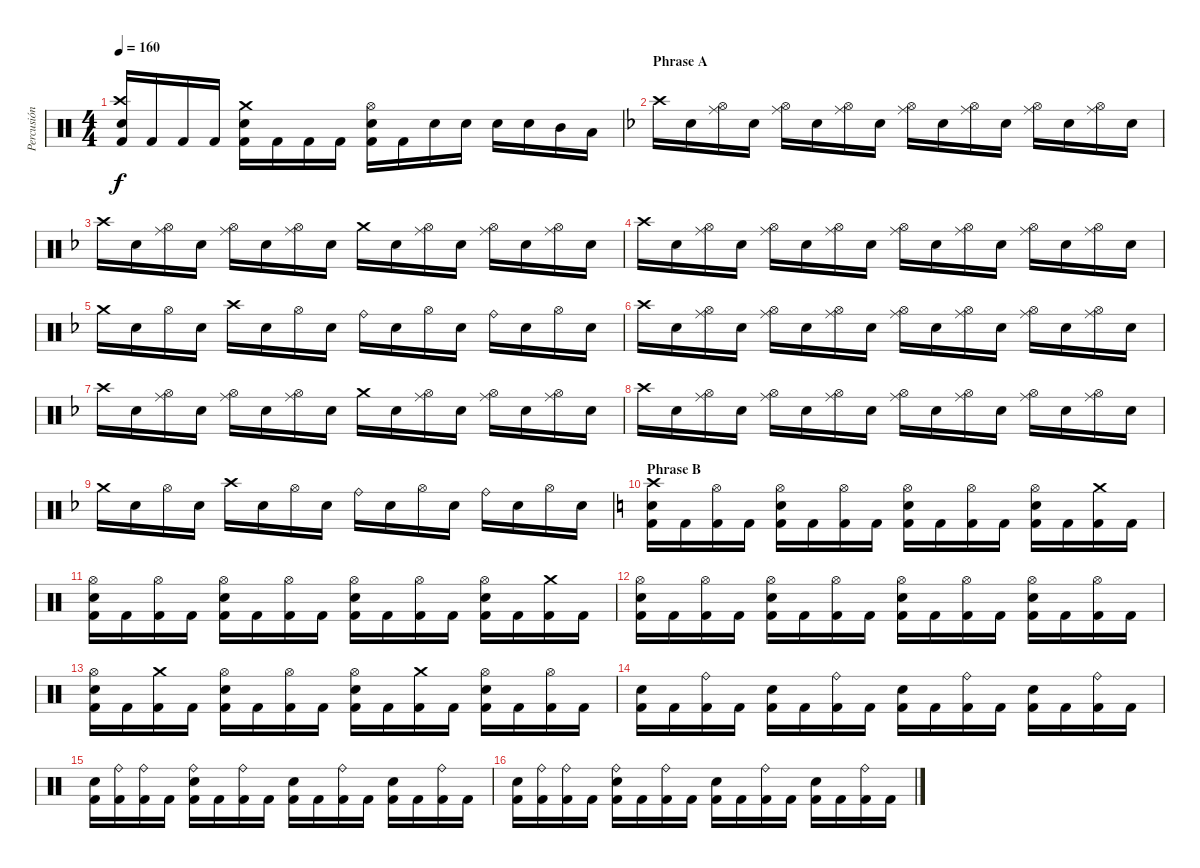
\track ("Percusión" "Percusión") {instrument percussion}
\staff {score}
\articulation defaults
\ts (4 4)
\tempo 160
\clef neutral
\ks c
("Electric Snare (hit)" "Crash high (hit)" "Kick (hit) 2").16{dy f} "Kick (hit) 2".16 "Kick (hit) 2".16 "Kick (hit) 2".16 ("Electric Snare (hit)" "Crash medium (hit)" "Kick (hit) 2").16 "Kick (hit) 2".16 "Kick (hit) 2".16 "Kick (hit) 2".16 ("Electric Snare (hit)" "Hi-Hat (open)" "Kick (hit) 2").16 "Kick (hit) 2".16 "Electric Snare (hit)".16 "Electric Snare (hit)".16 "Electric Snare (hit)".16 "Electric Snare (hit)".16 "Mid Tom (hit)".16 "Low Tom (hit)".16 |
\section ("" "Phrase A")
\ks f "Crash high (hit)".16 "Electric Snare (hit)".16
("Ride (middle)" "Hi-Hat (open)").16 "Electric Snare (hit)".16 ("Ride (middle)" "Hi-Hat (open)").16 "Electric Snare (hit)".16 ("Ride (middle)" "Hi-Hat (open)").16 "Electric Snare (hit)".16 ("Ride (middle)" "Hi-Hat (open)").16 "Electric Snare (hit)".16 ("Ride (middle)" "Hi-Hat (open)").16 "Electric Snare (hit)".16 ("Ride (middle)" "Hi-Hat (open)").16 "Electric Snare (hit)".16 ("Ride (middle)" "Hi-Hat (open)").16 "Electric Snare (hit)".16 |
"Crash high (hit)".16 "Electric Snare (hit)".16 ("Ride (middle)" "Hi-Hat (open)").16 "Electric Snare (hit)".16 ("Ride (middle)" "Hi-Hat (open)").16 "Electric Snare (hit)".16 ("Ride (middle)" "Hi-Hat (open)").16 "Electric Snare (hit)".16 "Crash medium (hit)".16 "Electric Snare (hit)".16 ("Ride (middle)" "Hi-Hat (open)").16 "Electric Snare (hit)".16 ("Ride (middle)" "Hi-Hat (open)").16 "Electric Snare (hit)".16 ("Ride (middle)" "Hi-Hat (open)").16 "Electric Snare (hit)".16 |
"Crash high (hit)".16 "Electric Snare (hit)".16 ("Ride (middle)" "Hi-Hat (open)").16 "Electric Snare (hit)".16 ("Ride (middle)" "Hi-Hat (open)").16 "Electric Snare (hit)".16 ("Ride (middle)" "Hi-Hat (open)").16 "Electric Snare (hit)".16 ("Ride (middle)" "Hi-Hat (open)").16 "Electric Snare (hit)".16 ("Ride (middle)" "Hi-Hat (open)").16 "Electric Snare (hit)".16 ("Ride (middle)" "Hi-Hat (open)").16 "Electric Snare (hit)".16 ("Ride (middle)" "Hi-Hat (open)").16 "Electric Snare (hit)".16 |
"Crash medium (hit)".16 "Electric Snare (hit)".16 "Hi-Hat (open)".16 "Electric Snare (hit)".16 "Crash high (hit)".16 "Electric Snare (hit)".16 "Hi-Hat (open)".16 "Electric Snare (hit)".16 "Ride (bell)".16 "Electric Snare (hit)".16 "Hi-Hat (open)".16 "Electric Snare (hit)".16 "Ride (bell)".16 "Electric Snare (hit)".16 "Hi-Hat (open)".16 "Electric Snare (hit)".16 |
"Crash high (hit)".16 "Electric Snare (hit)".16 ("Ride (middle)" "Hi-Hat (open)").16 "Electric Snare (hit)".16 ("Ride (middle)" "Hi-Hat (open)").16 "Electric Snare (hit)".16 ("Ride (middle)" "Hi-Hat (open)").16 "Electric Snare (hit)".16 ("Ride (middle)" "Hi-Hat (open)").16 "Electric Snare (hit)".16 ("Ride (middle)" "Hi-Hat (open)").16 "Electric Snare (hit)".16 ("Ride (middle)" "Hi-Hat (open)").16 "Electric Snare (hit)".16 ("Ride (middle)" "Hi-Hat (open)").16 "Electric Snare (hit)".16 |
"Crash high (hit)".16 "Electric Snare (hit)".16 ("Ride (middle)" "Hi-Hat (open)").16 "Electric Snare (hit)".16 ("Ride (middle)" "Hi-Hat (open)").16 "Electric Snare (hit)".16 ("Ride (middle)" "Hi-Hat (open)").16 "Electric Snare (hit)".16 "Crash medium (hit)".16 "Electric Snare (hit)".16 ("Ride (middle)" "Hi-Hat (open)").16 "Electric Snare (hit)".16 ("Ride (middle)" "Hi-Hat (open)").16 "Electric Snare (hit)".16 ("Ride (middle)" "Hi-Hat (open)").16 "Electric Snare (hit)".16 |
"Crash high (hit)".16 "Electric Snare (hit)".16 ("Ride (middle)" "Hi-Hat (open)").16 "Electric Snare (hit)".16 ("Ride (middle)" "Hi-Hat (open)").16 "Electric Snare (hit)".16 ("Ride (middle)" "Hi-Hat (open)").16 "Electric Snare (hit)".16 ("Ride (middle)" "Hi-Hat (open)").16 "Electric Snare (hit)".16 ("Ride (middle)" "Hi-Hat (open)").16 "Electric Snare (hit)".16 ("Ride (middle)" "Hi-Hat (open)").16 "Electric Snare (hit)".16 ("Ride (middle)" "Hi-Hat (open)").16 "Electric Snare (hit)".16 |
"Crash medium (hit)".16 "Electric Snare (hit)".16 "Hi-Hat (open)".16 "Electric Snare (hit)".16 "Crash high (hit)".16 "Electric Snare (hit)".16 "Hi-Hat (open)".16 "Electric Snare (hit)".16 "Ride (bell)".16 "Electric Snare (hit)".16 "Hi-Hat (open)".16 "Electric Snare (hit)".16 "Ride (bell)".16 "Electric Snare (hit)".16 "Hi-Hat (open)".16 "Electric Snare (hit)".16 |
\section ("" "Phrase B")
\ks c
("Electric Snare (hit)" "Crash high (hit)" "Kick (hit) 2").16 "Kick (hit) 2".16 ("Hi-Hat (open)" "Kick (hit) 2").16 "Kick (hit) 2".16 ("Electric Snare (hit)" "Hi-Hat (open)" "Kick (hit) 2").16 "Kick (hit) 2".16 ("Hi-Hat (open)" "Kick (hit) 2").16 "Kick (hit) 2".16 ("Electric Snare (hit)" "Hi-Hat (open)" "Kick (hit) 2").16 "Kick (hit) 2".16 ("Hi-Hat (open)" "Kick (hit) 2").16 "Kick (hit) 2".16 ("Electric Snare (hit)" "Hi-Hat (open)" "Kick (hit) 2").16 "Kick (hit) 2".16 ("Crash medium (hit)" "Kick (hit) 2").16 "Kick (hit) 2".16 |
("Electric Snare (hit)" "Hi-Hat (open)" "Kick (hit) 2").16 "Kick (hit) 2".16 ("Hi-Hat (open)" "Kick (hit) 2").16 "Kick (hit) 2".16 ("Electric Snare (hit)" "Hi-Hat (open)" "Kick (hit) 2").16 "Kick (hit) 2".16 ("Hi-Hat (open)" "Kick (hit) 2").16 "Kick (hit) 2".16 ("Electric Snare (hit)" "Hi-Hat (open)" "Kick (hit) 2").16 "Kick (hit) 2".16 ("Hi-Hat (open)" "Kick (hit) 2").16 "Kick (hit) 2".16 ("Electric Snare (hit)" "Hi-Hat (open)" "Kick (hit) 2").16 "Kick (hit) 2".16 ("Crash medium (hit)" "Kick (hit) 2").16 "Kick (hit) 2".16 |
("Electric Snare (hit)" "Hi-Hat (open)" "Kick (hit) 2").16 "Kick (hit) 2".16 ("Hi-Hat (open)" "Kick (hit) 2").16 "Kick (hit) 2".16 ("Electric Snare (hit)" "Hi-Hat (open)" "Kick (hit) 2").16 "Kick (hit) 2".16 ("Hi-Hat (open)" "Kick (hit) 2").16 "Kick (hit) 2".16 ("Electric Snare (hit)" "Hi-Hat (open)" "Kick (hit) 2").16 "Kick (hit) 2".16 ("Hi-Hat (open)" "Kick (hit) 2").16 "Kick (hit) 2".16 ("Electric Snare (hit)" "Hi-Hat (open)" "Kick (hit) 2").16 "Kick (hit) 2".16 ("Hi-Hat (open)" "Kick (hit) 2").16 "Kick (hit) 2".16 |
("Electric Snare (hit)" "Hi-Hat (open)" "Kick (hit) 2").16 "Kick (hit) 2".16 ("Crash medium (hit)" "Kick (hit) 2").16 "Kick (hit) 2".16 ("Electric Snare (hit)" "Hi-Hat (open)" "Kick (hit) 2").16 "Kick (hit) 2".16 ("Hi-Hat (open)" "Kick (hit) 2").16 "Kick (hit) 2".16 ("Electric Snare (hit)" "Hi-Hat (open)" "Kick (hit) 2").16 "Kick (hit) 2".16 ("Crash medium (hit)" "Kick (hit) 2").16 "Kick (hit) 2".16 ("Electric Snare (hit)" "Hi-Hat (open)" "Kick (hit) 2").16 "Kick (hit) 2".16 ("Hi-Hat (open)" "Kick (hit) 2").16 "Kick (hit) 2".16 |
("Electric Snare (hit)" "Kick (hit) 2").16 "Kick (hit) 2".16 ("Ride (bell)" "Kick (hit) 2").16 "Kick (hit) 2".16 ("Electric Snare (hit)" "Kick (hit) 2").16 "Kick (hit) 2".16 ("Ride (bell)" "Kick (hit) 2").16 "Kick (hit) 2".16 ("Electric Snare (hit)" "Kick (hit) 2").16 "Kick (hit) 2".16 ("Ride (bell)" "Kick (hit) 2").16 "Kick (hit) 2".16 ("Electric Snare (hit)" "Kick (hit) 2").16 "Kick (hit) 2".16 ("Ride (bell)" "Kick (hit) 2").16 "Kick (hit) 2".16 |
("Electric Snare (hit)" "Kick (hit) 2").16 ("Ride (bell)" "Kick (hit) 2").16 ("Ride (bell)" "Kick (hit) 2").16 "Kick (hit) 2".16 ("Electric Snare (hit)" "Ride (bell)" "Kick (hit) 2").16 "Kick (hit) 2".16 ("Ride (bell)" "Kick (hit) 2").16 "Kick (hit) 2".16 ("Electric Snare (hit)" "Kick (hit) 2").16 "Kick (hit) 2".16 ("Ride (bell)" "Kick (hit) 2").16 "Kick (hit) 2".16 ("Electric Snare (hit)" "Kick (hit) 2").16 "Kick (hit) 2".16 ("Ride (bell)" "Kick (hit) 2").16 "Kick (hit) 2".16 |
("Electric Snare (hit)" "Kick (hit) 2").16 ("Ride (bell)" "Kick (hit) 2").16 ("Ride (bell)" "Kick (hit) 2").16 "Kick (hit) 2".16 ("Electric Snare (hit)" "Ride (bell)" "Kick (hit) 2").16 "Kick (hit) 2".16 ("Ride (bell)" "Kick (hit) 2").16 "Kick (hit) 2".16 ("Electric Snare (hit)" "Kick (hit) 2").16 "Kick (hit) 2".16 ("Ride (bell)" "Kick (hit) 2").16 "Kick (hit) 2".16 ("Electric Snare (hit)" "Kick (hit) 2").16 "Kick (hit) 2".16 ("Ride (bell)" "Kick (hit) 2").16 "Kick (hit) 2".16
